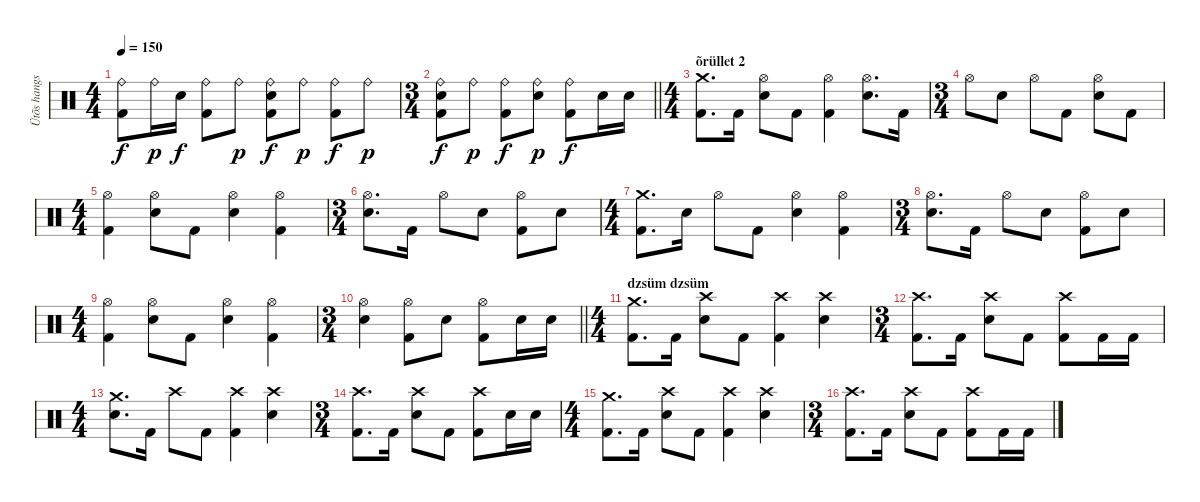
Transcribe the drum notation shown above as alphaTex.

\track ("Ütõs hangszer" "Ütõs hangs") {instrument percussion}
\staff {score}
\articulation defaults
\ts (4 4)
\tempo 150
\clef neutral
\ks c
("Ride (bell)" "Kick (hit) 2").8{dy f} "Ride (bell)".16{dy p} "Electric Snare (hit)".16{dy f} ("Ride (bell)" "Kick (hit) 2").8 "Ride (bell)".8{dy p} ("Ride (bell)" "Electric Snare (hit)" "Kick (hit) 2").8{dy f} "Ride (bell)".8{dy p} ("Ride (bell)" "Kick (hit) 2").8{dy f} "Ride (bell)".8{dy p} |
\ts (3 4)
\barLineRight lightlight
("Ride (bell)" "Electric Snare (hit)" "Kick (hit) 2").8{dy f} "Ride (bell)".8{dy p} ("Ride (bell)" "Kick (hit) 2").8{dy f} ("Ride (bell)" "Electric Snare (hit)").8{dy p} ("Ride (bell)" "Kick (hit) 2").8{dy f} "Electric Snare (hit)".16 "Electric Snare (hit)".16 |
\ts (4 4)
\section ("" "õrüllet 2")
("Crash medium (hit)" "Kick (hit) 2").8{d} "Kick (hit) 2".16 ("Hi-Hat (open)" "Electric Snare (hit)").8 "Kick (hit) 2".8 ("Hi-Hat (open)" "Kick (hit) 2").4 ("Hi-Hat (open)" "Electric Snare (hit)").8{d} "Kick (hit) 2".16 |
\ts (3 4)
"Hi-Hat (open)".8 "Electric Snare (hit)".8 "Hi-Hat (open)".8 "Kick (hit) 2".8 ("Hi-Hat (open)" "Electric Snare (hit)").8 "Kick (hit) 2".8 |
\ts (4 4)
("Hi-Hat (open)" "Kick (hit) 2").4 ("Hi-Hat (open)" "Electric Snare (hit)").8 "Kick (hit) 2".8 ("Hi-Hat (open)" "Electric Snare (hit)").4 ("Hi-Hat (open)" "Kick (hit) 2").4 |
\ts (3 4)
("Hi-Hat (open)" "Electric Snare (hit)").8{d} "Kick (hit) 2".16 "Hi-Hat (open)".8 "Electric Snare (hit)".8 ("Hi-Hat (open)" "Kick (hit) 2").8 "Electric Snare (hit)".8 |
\ts (4 4)
("Crash medium (hit)" "Kick (hit) 2").8{d} "Electric Snare (hit)".16 "Hi-Hat (open)".8 "Kick (hit) 2".8 ("Hi-Hat (open)" "Electric Snare (hit)").4 ("Hi-Hat (open)" "Kick (hit) 2").4 |
\ts (3 4)
("Hi-Hat (open)" "Electric Snare (hit)").8{d} "Kick (hit) 2".16 "Hi-Hat (open)".8 "Electric Snare (hit)".8 ("Hi-Hat (open)" "Kick (hit) 2").8 "Electric Snare (hit)".8 |
\ts (4 4)
("Hi-Hat (open)" "Kick (hit) 2").4 ("Hi-Hat (open)" "Electric Snare (hit)").8 "Kick (hit) 2".8 ("Hi-Hat (open)" "Electric Snare (hit)").4 ("Hi-Hat (open)" "Kick (hit) 2").4 |
\ts (3 4)
\barLineRight lightlight
("Hi-Hat (open)" "Electric Snare (hit)").4 ("Hi-Hat (open)" "Kick (hit) 2").8 "Electric Snare (hit)".8 ("Hi-Hat (open)" "Kick (hit) 2").8 "Electric Snare (hit)".16 "Electric Snare (hit)".16 |
\ts (4 4)
\section ("" "dzsüm dzsüm")
("Crash medium (hit)" "Kick (hit) 2").8{d} "Kick (hit) 2".16 ("Crash high (hit)" "Electric Snare (hit)").8 "Kick (hit) 2".8 ("Crash high (hit)" "Kick (hit) 2").4 ("Crash high (hit)" "Electric Snare (hit)").4 |
\ts (3 4)
("Crash high (hit)" "Kick (hit) 2").8{d} "Kick (hit) 2".16 ("Crash high (hit)" "Electric Snare (hit)").8 "Kick (hit) 2".8 ("Crash high (hit)" "Kick (hit) 2").8 "Kick (hit) 2".16 "Kick (hit) 2".16 |
\ts (4 4)
("Crash medium (hit)" "Electric Snare (hit)").8{d} "Kick (hit) 2".16 "Crash high (hit)".8 "Kick (hit) 2".8 ("Crash high (hit)" "Kick (hit) 2").4 ("Crash high (hit)" "Electric Snare (hit)").4 |
\ts (3 4)
("Crash high (hit)" "Kick (hit) 2").8{d} "Kick (hit) 2".16 ("Crash high (hit)" "Electric Snare (hit)").8 "Kick (hit) 2".8 ("Crash high (hit)" "Kick (hit) 2").8 "Electric Snare (hit)".16 "Electric Snare (hit)".16 |
\ts (4 4)
("Crash medium (hit)" "Kick (hit) 2").8{d} "Kick (hit) 2".16 ("Crash high (hit)" "Electric Snare (hit)").8 "Kick (hit) 2".8 ("Crash high (hit)" "Kick (hit) 2").4 ("Crash high (hit)" "Electric Snare (hit)").4 |
\ts (3 4)
("Crash high (hit)" "Kick (hit) 2").8{d} "Kick (hit) 2".16 ("Crash high (hit)" "Electric Snare (hit)").8 "Kick (hit) 2".8 ("Crash high (hit)" "Kick (hit) 2").8 "Kick (hit) 2".16 "Kick (hit) 2".16
